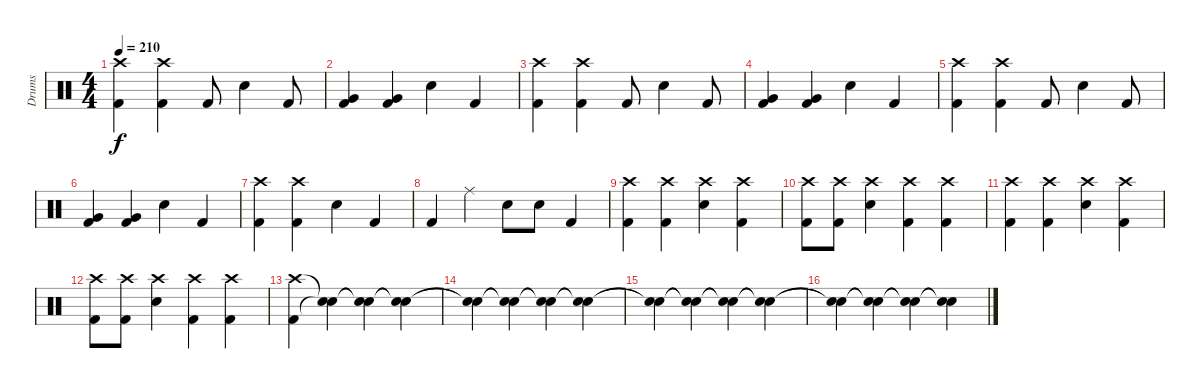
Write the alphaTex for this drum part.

\track ("Drums" "Drums") {instrument percussion}
\staff {score}
\articulation defaults
\ts (4 4)
\tempo 210
\clef neutral
\ks c
("Kick (hit) 2" "Crash high (hit)").4{dy f} ("Kick (hit) 2" "Crash high (hit)").4 "Kick (hit) 2".8 "Snare (hit) 2".4 "Kick (hit) 2".8 |
("Very Low Tom (hit)" "Kick (hit) 2").4 ("Kick (hit) 2" "Very Low Tom (hit)").4 "Snare (hit) 2".4 "Kick (hit) 2".4 |
("Kick (hit) 2" "Crash high (hit)").4 ("Kick (hit) 2" "Crash high (hit)").4 "Kick (hit) 2".8 "Snare (hit) 2".4 "Kick (hit) 2".8 |
("Very Low Tom (hit)" "Kick (hit) 2").4 ("Kick (hit) 2" "Very Low Tom (hit)").4 "Snare (hit) 2".4 "Kick (hit) 2".4 |
("Kick (hit) 2" "Crash high (hit)").4 ("Kick (hit) 2" "Crash high (hit)").4 "Kick (hit) 2".8 "Snare (hit) 2".4 "Kick (hit) 2".8 |
("Very Low Tom (hit)" "Kick (hit) 2").4 ("Kick (hit) 2" "Very Low Tom (hit)").4 "Snare (hit) 2".4 "Kick (hit) 2".4 |
("Kick (hit) 2" "Crash high (hit)").4 ("Kick (hit) 2" "Crash high (hit)").4 "Snare (hit) 2".4 "Kick (hit) 2".4 |
"Kick (hit) 2".4 "Ride (middle)".4 "Snare (hit) 2".8 "Snare (hit) 2".8 "Kick (hit) 2".4 |
("Crash high (hit)" "Kick (hit) 2").4 ("Crash high (hit)" "Kick (hit) 2").4 ("Crash high (hit)" "Snare (hit) 2").4 ("Crash high (hit)" "Kick (hit) 2").4 |
("Crash high (hit)" "Kick (hit) 2").8 ("Crash high (hit)" "Kick (hit) 2").8 ("Crash high (hit)" "Snare (hit) 2").4 ("Crash high (hit)" "Kick (hit) 2").4 ("Crash high (hit)" "Kick (hit) 2").4 |
("Crash high (hit)" "Kick (hit) 2").4 ("Crash high (hit)" "Kick (hit) 2").4 ("Crash high (hit)" "Snare (hit) 2").4 ("Crash high (hit)" "Kick (hit) 2").4 |
("Crash high (hit)" "Kick (hit) 2").8 ("Crash high (hit)" "Kick (hit) 2").8 ("Crash high (hit)" "Snare (hit) 2").4 ("Crash high (hit)" "Kick (hit) 2").4 ("Crash high (hit)" "Kick (hit) 2").4 |
("Crash high (hit)" "Kick (hit) 2").4 ("Snare (hit)"{t} "Snare (hit)"{t}).4 ("Snare (hit)"{t} "Snare (hit)"{t}).4 ("Snare (hit)"{t} "Snare (hit)"{t}).4 |
("Snare (hit)"{t} "Snare (hit)"{t}).4 ("Snare (hit)"{t} "Snare (hit)"{t}).4 ("Snare (hit)"{t} "Snare (hit)"{t}).4 ("Snare (hit)"{t} "Snare (hit)"{t}).4 |
("Snare (hit)"{t} "Snare (hit)"{t}).4 ("Snare (hit)"{t} "Snare (hit)"{t}).4 ("Snare (hit)"{t} "Snare (hit)"{t}).4 ("Snare (hit)"{t} "Snare (hit)"{t}).4 |
("Snare (hit)"{t} "Snare (hit)"{t}).4 ("Snare (hit)"{t} "Snare (hit)"{t}).4 ("Snare (hit)"{t} "Snare (hit)"{t}).4 ("Snare (hit)"{t} "Snare (hit)"{t}).4
